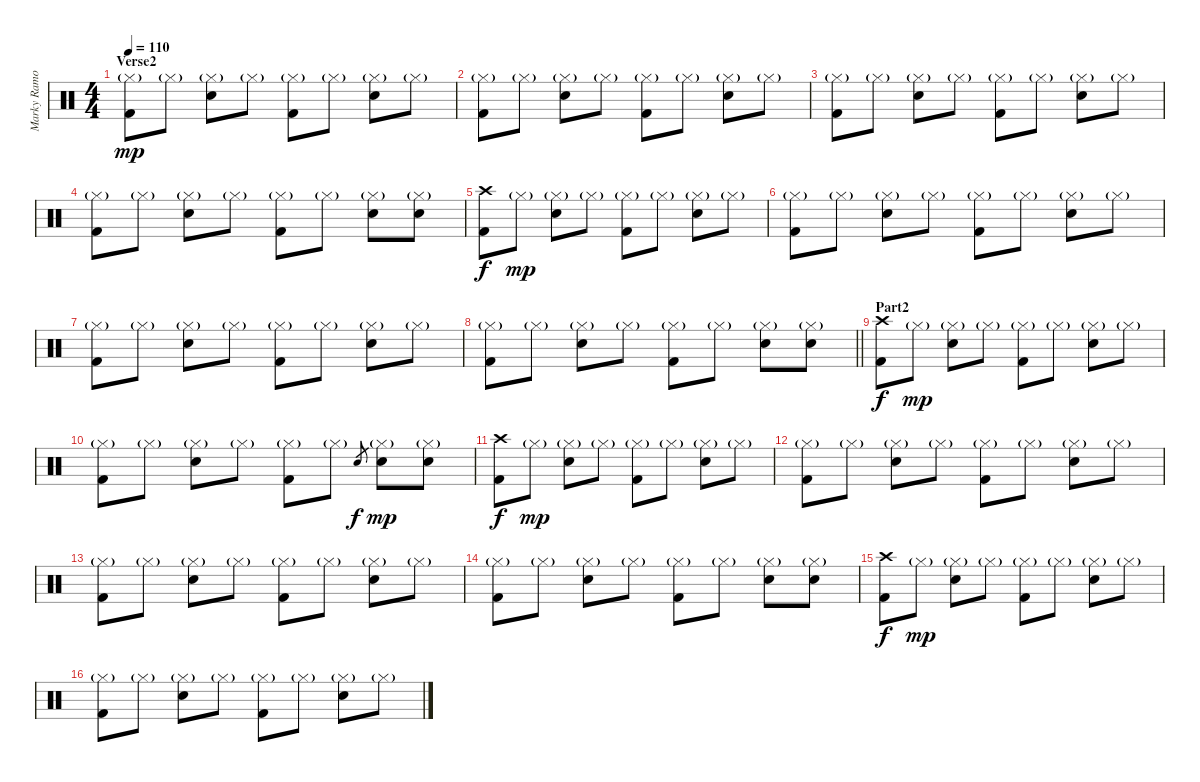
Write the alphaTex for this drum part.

\track ("Marky Ramone-Drums" "Marky Ramo") {instrument percussion}
\staff
\articulation defaults
\ts (4 4)
\section ("" "Verse2")
\tempo 110
\clef neutral
\ks c
("Hi-Hat (closed)"{g} "Kick (hit) 2").8{dy mp} "Hi-Hat (closed)"{g}.8 ("Hi-Hat (closed)"{g} "Snare (hit) 2").8 "Hi-Hat (closed)"{g}.8 ("Hi-Hat (closed)"{g} "Kick (hit) 2").8 "Hi-Hat (closed)"{g}.8 ("Hi-Hat (closed)"{g} "Snare (hit) 2").8 "Hi-Hat (closed)"{g}.8 |
("Hi-Hat (closed)"{g} "Kick (hit) 2").8 "Hi-Hat (closed)"{g}.8 ("Hi-Hat (closed)"{g} "Snare (hit) 2").8 "Hi-Hat (closed)"{g}.8 ("Hi-Hat (closed)"{g} "Kick (hit) 2").8 "Hi-Hat (closed)"{g}.8 ("Hi-Hat (closed)"{g} "Snare (hit) 2").8 "Hi-Hat (closed)"{g}.8 |
("Hi-Hat (closed)"{g} "Kick (hit) 2").8 "Hi-Hat (closed)"{g}.8 ("Hi-Hat (closed)"{g} "Snare (hit) 2").8 "Hi-Hat (closed)"{g}.8 ("Hi-Hat (closed)"{g} "Kick (hit) 2").8 "Hi-Hat (closed)"{g}.8 ("Hi-Hat (closed)"{g} "Snare (hit) 2").8 "Hi-Hat (closed)"{g}.8 |
("Hi-Hat (closed)"{g} "Kick (hit) 2").8 "Hi-Hat (closed)"{g}.8 ("Hi-Hat (closed)"{g} "Snare (hit) 2").8 "Hi-Hat (closed)"{g}.8 ("Hi-Hat (closed)"{g} "Kick (hit) 2").8 "Hi-Hat (closed)"{g}.8 ("Hi-Hat (closed)"{g} "Snare (hit) 2").8 ("Hi-Hat (closed)"{g} "Snare (hit) 2").8 |
("Crash high (hit)" "Kick (hit) 2").8{dy f} "Hi-Hat (closed)"{g}.8{dy mp} ("Hi-Hat (closed)"{g} "Snare (hit) 2").8 "Hi-Hat (closed)"{g}.8 ("Hi-Hat (closed)"{g} "Kick (hit) 2").8 "Hi-Hat (closed)"{g}.8 ("Hi-Hat (closed)"{g} "Snare (hit) 2").8 "Hi-Hat (closed)"{g}.8 |
("Hi-Hat (closed)"{g} "Kick (hit) 2").8 "Hi-Hat (closed)"{g}.8 ("Hi-Hat (closed)"{g} "Snare (hit) 2").8 "Hi-Hat (closed)"{g}.8 ("Hi-Hat (closed)"{g} "Kick (hit) 2").8 "Hi-Hat (closed)"{g}.8 ("Hi-Hat (closed)"{g} "Snare (hit) 2").8 "Hi-Hat (closed)"{g}.8 |
("Hi-Hat (closed)"{g} "Kick (hit) 2").8 "Hi-Hat (closed)"{g}.8 ("Hi-Hat (closed)"{g} "Snare (hit) 2").8 "Hi-Hat (closed)"{g}.8 ("Hi-Hat (closed)"{g} "Kick (hit) 2").8 "Hi-Hat (closed)"{g}.8 ("Hi-Hat (closed)"{g} "Snare (hit) 2").8 "Hi-Hat (closed)"{g}.8 |
\barLineRight lightlight
("Hi-Hat (closed)"{g} "Kick (hit) 2").8 "Hi-Hat (closed)"{g}.8 ("Hi-Hat (closed)"{g} "Snare (hit) 2").8 "Hi-Hat (closed)"{g}.8 ("Hi-Hat (closed)"{g} "Kick (hit) 2").8 "Hi-Hat (closed)"{g}.8 ("Hi-Hat (closed)"{g} "Snare (hit) 2").8 ("Hi-Hat (closed)"{g} "Snare (hit) 2").8 |
\section ("" "Part2")
("Crash high (hit)" "Kick (hit) 2").8{dy f} "Hi-Hat (closed)"{g}.8{dy mp} ("Hi-Hat (closed)"{g} "Snare (hit) 2").8 "Hi-Hat (closed)"{g}.8 ("Hi-Hat (closed)"{g} "Kick (hit) 2").8 "Hi-Hat (closed)"{g}.8 ("Hi-Hat (closed)"{g} "Snare (hit) 2").8 "Hi-Hat (closed)"{g}.8 |
("Hi-Hat (closed)"{g} "Kick (hit) 2").8 "Hi-Hat (closed)"{g}.8 ("Hi-Hat (closed)"{g} "Snare (hit) 2").8 "Hi-Hat (closed)"{g}.8 ("Hi-Hat (closed)"{g} "Kick (hit) 2").8 "Hi-Hat (closed)"{g}.8 "Snare (hit) 2".8{gr dy f} ("Hi-Hat (closed)"{g} "Snare (hit) 2").8{dy mp} ("Hi-Hat (closed)"{g} "Snare (hit) 2").8 |
("Crash high (hit)" "Kick (hit) 2").8{dy f} "Hi-Hat (closed)"{g}.8{dy mp} ("Hi-Hat (closed)"{g} "Snare (hit) 2").8 "Hi-Hat (closed)"{g}.8 ("Hi-Hat (closed)"{g} "Kick (hit) 2").8 "Hi-Hat (closed)"{g}.8 ("Hi-Hat (closed)"{g} "Snare (hit) 2").8 "Hi-Hat (closed)"{g}.8 |
("Hi-Hat (closed)"{g} "Kick (hit) 2").8 "Hi-Hat (closed)"{g}.8 ("Hi-Hat (closed)"{g} "Snare (hit) 2").8 "Hi-Hat (closed)"{g}.8 ("Hi-Hat (closed)"{g} "Kick (hit) 2").8 "Hi-Hat (closed)"{g}.8 ("Hi-Hat (closed)"{g} "Snare (hit) 2").8 "Hi-Hat (closed)"{g}.8 |
("Hi-Hat (closed)"{g} "Kick (hit) 2").8 "Hi-Hat (closed)"{g}.8 ("Hi-Hat (closed)"{g} "Snare (hit) 2").8 "Hi-Hat (closed)"{g}.8 ("Hi-Hat (closed)"{g} "Kick (hit) 2").8 "Hi-Hat (closed)"{g}.8 ("Hi-Hat (closed)"{g} "Snare (hit) 2").8 "Hi-Hat (closed)"{g}.8 |
("Hi-Hat (closed)"{g} "Kick (hit) 2").8 "Hi-Hat (closed)"{g}.8 ("Hi-Hat (closed)"{g} "Snare (hit) 2").8 "Hi-Hat (closed)"{g}.8 ("Hi-Hat (closed)"{g} "Kick (hit) 2").8 "Hi-Hat (closed)"{g}.8 ("Hi-Hat (closed)"{g} "Snare (hit) 2").8 ("Hi-Hat (closed)"{g} "Snare (hit) 2").8 |
("Crash high (hit)" "Kick (hit) 2").8{dy f} "Hi-Hat (closed)"{g}.8{dy mp} ("Hi-Hat (closed)"{g} "Snare (hit) 2").8 "Hi-Hat (closed)"{g}.8 ("Hi-Hat (closed)"{g} "Kick (hit) 2").8 "Hi-Hat (closed)"{g}.8 ("Hi-Hat (closed)"{g} "Snare (hit) 2").8 "Hi-Hat (closed)"{g}.8 |
("Hi-Hat (closed)"{g} "Kick (hit) 2").8 "Hi-Hat (closed)"{g}.8 ("Hi-Hat (closed)"{g} "Snare (hit) 2").8 "Hi-Hat (closed)"{g}.8 ("Hi-Hat (closed)"{g} "Kick (hit) 2").8 "Hi-Hat (closed)"{g}.8 ("Hi-Hat (closed)"{g} "Snare (hit) 2").8 "Hi-Hat (closed)"{g}.8
